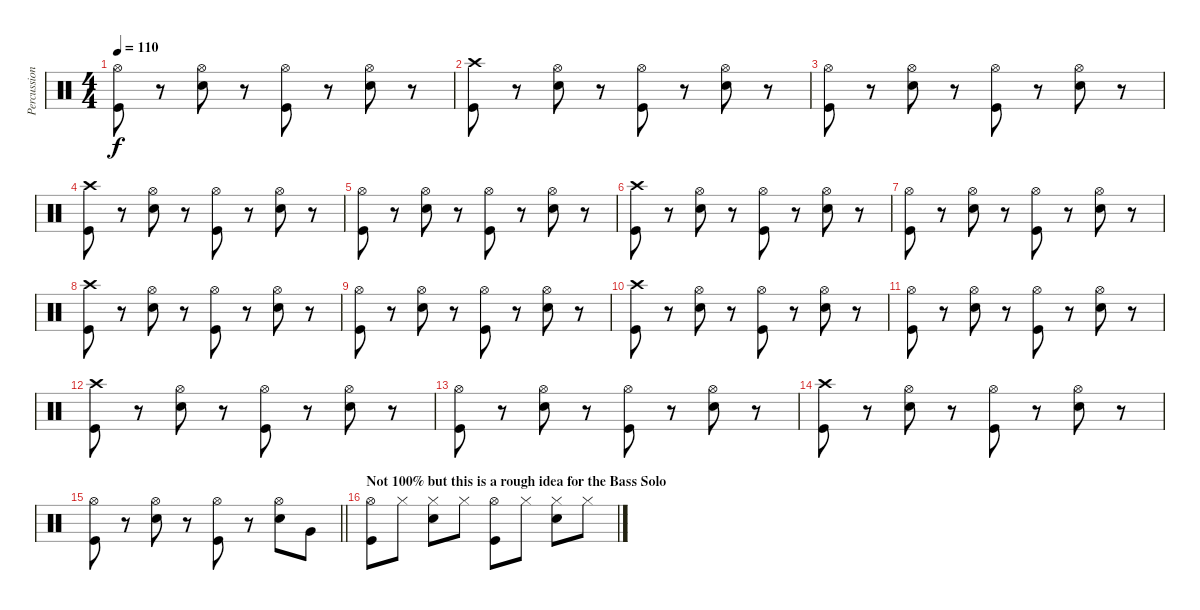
\track ("Percussion" "Percussion") {instrument percussion}
\staff {score}
\articulation defaults
\ts (4 4)
\tempo 110
\clef neutral
\ks c
("Hi-Hat (open)" "Kick (hit)").8{dy f} r.8 ("Hi-Hat (open)" "Snare (hit) 2").8 r.8 ("Hi-Hat (open)" "Kick (hit)").8 r.8 ("Hi-Hat (open)" "Snare (hit) 2").8 r.8 |
("Crash high (hit)" "Kick (hit)").8 r.8 ("Hi-Hat (open)" "Snare (hit) 2").8 r.8 ("Hi-Hat (open)" "Kick (hit)").8 r.8 ("Hi-Hat (open)" "Snare (hit) 2").8 r.8 |
("Hi-Hat (open)" "Kick (hit)").8 r.8 ("Hi-Hat (open)" "Snare (hit) 2").8 r.8 ("Hi-Hat (open)" "Kick (hit)").8 r.8 ("Hi-Hat (open)" "Snare (hit) 2").8 r.8 |
("Crash high (hit)" "Kick (hit)").8 r.8 ("Hi-Hat (open)" "Snare (hit) 2").8 r.8 ("Hi-Hat (open)" "Kick (hit)").8 r.8 ("Hi-Hat (open)" "Snare (hit) 2").8 r.8 |
("Hi-Hat (open)" "Kick (hit)").8 r.8 ("Hi-Hat (open)" "Snare (hit) 2").8 r.8 ("Hi-Hat (open)" "Kick (hit)").8 r.8 ("Hi-Hat (open)" "Snare (hit) 2").8 r.8 |
("Crash high (hit)" "Kick (hit)").8 r.8 ("Hi-Hat (open)" "Snare (hit) 2").8 r.8 ("Hi-Hat (open)" "Kick (hit)").8 r.8 ("Hi-Hat (open)" "Snare (hit) 2").8 r.8 |
("Hi-Hat (open)" "Kick (hit)").8 r.8 ("Hi-Hat (open)" "Snare (hit) 2").8 r.8 ("Hi-Hat (open)" "Kick (hit)").8 r.8 ("Hi-Hat (open)" "Snare (hit) 2").8 r.8 |
("Crash high (hit)" "Kick (hit)").8 r.8 ("Hi-Hat (open)" "Snare (hit) 2").8 r.8 ("Hi-Hat (open)" "Kick (hit)").8 r.8 ("Hi-Hat (open)" "Snare (hit) 2").8 r.8 |
("Hi-Hat (open)" "Kick (hit)").8 r.8 ("Hi-Hat (open)" "Snare (hit) 2").8 r.8 ("Hi-Hat (open)" "Kick (hit)").8 r.8 ("Hi-Hat (open)" "Snare (hit) 2").8 r.8 |
("Crash high (hit)" "Kick (hit)").8 r.8 ("Hi-Hat (open)" "Snare (hit) 2").8 r.8 ("Hi-Hat (open)" "Kick (hit)").8 r.8 ("Hi-Hat (open)" "Snare (hit) 2").8 r.8 |
("Hi-Hat (open)" "Kick (hit)").8 r.8 ("Hi-Hat (open)" "Snare (hit) 2").8 r.8 ("Hi-Hat (open)" "Kick (hit)").8 r.8 ("Hi-Hat (open)" "Snare (hit) 2").8 r.8 |
("Crash high (hit)" "Kick (hit)").8 r.8 ("Hi-Hat (open)" "Snare (hit) 2").8 r.8 ("Hi-Hat (open)" "Kick (hit)").8 r.8 ("Hi-Hat (open)" "Snare (hit) 2").8 r.8 |
("Hi-Hat (open)" "Kick (hit)").8 r.8 ("Hi-Hat (open)" "Snare (hit) 2").8 r.8 ("Hi-Hat (open)" "Kick (hit)").8 r.8 ("Hi-Hat (open)" "Snare (hit) 2").8 r.8 |
("Crash high (hit)" "Kick (hit)").8 r.8 ("Hi-Hat (open)" "Snare (hit) 2").8 r.8 ("Hi-Hat (open)" "Kick (hit)").8 r.8 ("Hi-Hat (open)" "Snare (hit) 2").8 r.8 |
\barLineRight lightlight
("Hi-Hat (open)" "Kick (hit)").8 r.8 ("Hi-Hat (open)" "Snare (hit) 2").8 r.8 ("Hi-Hat (open)" "Kick (hit)").8 r.8 ("Hi-Hat (open)" "Snare (hit) 2").8 "Very Low Tom (hit)".8 |
\section ("" "Not 100% but this is a rough idea for the Bass Solo")
("Hi-Hat (open)" "Kick (hit)").8 "Hi-Hat (closed)".8 ("Hi-Hat (closed)" "Snare (hit) 2").8 "Hi-Hat (closed)".8 ("Hi-Hat (open)" "Kick (hit)").8 "Hi-Hat (closed)".8 ("Hi-Hat (closed)" "Snare (hit) 2").8 "Hi-Hat (closed)".8
